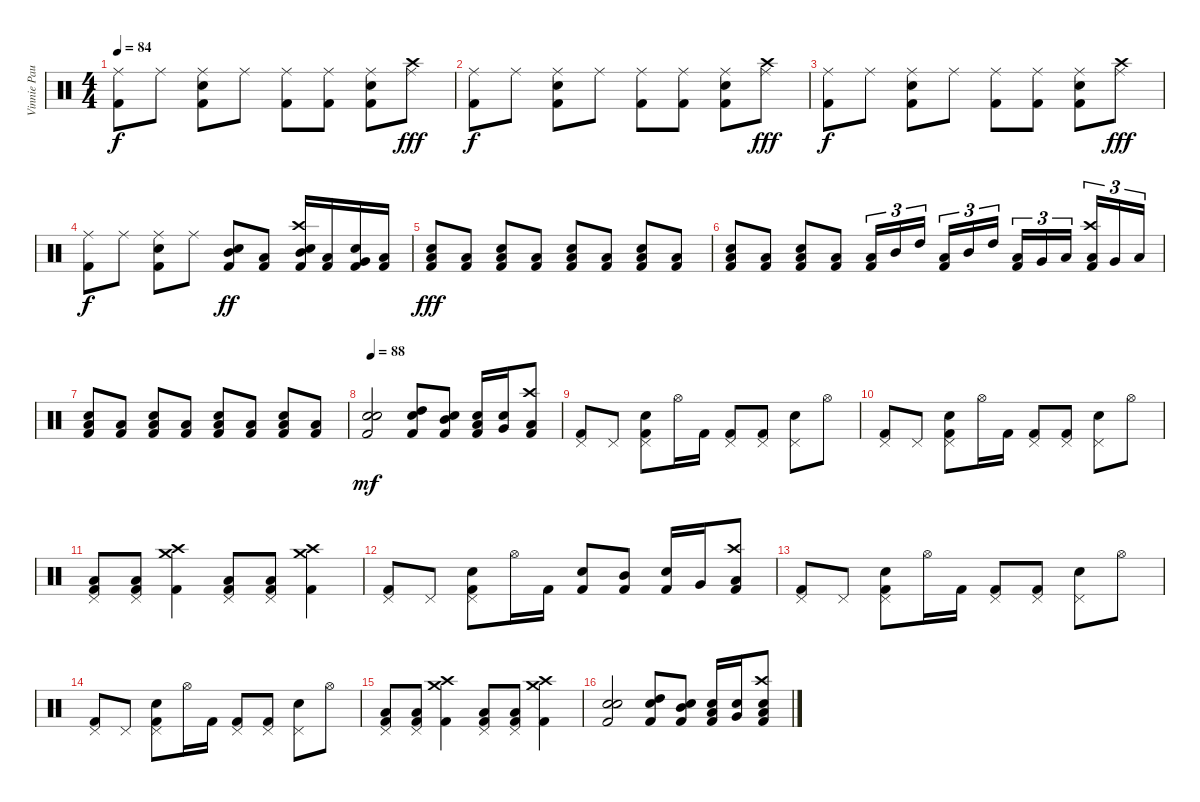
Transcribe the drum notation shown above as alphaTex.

\track ("Vinnie Paul" "Vinnie Pau") {instrument percussion}
\staff {score}
\articulation defaults
\ts (4 4)
\tempo 84
\clef neutral
\ks c
("Ride (middle)" "Kick (hit) 2").8{dy f} "Ride (middle)".8 ("Ride (middle)" "Snare (hit) 2" "Kick (hit) 2").8 "Ride (middle)".8 ("Ride (middle)" "Kick (hit) 2").8 ("Ride (middle)" "Kick (hit) 2").8 ("Ride (middle)" "Snare (hit) 2" "Kick (hit) 2").8 ("Crash high (hit)" "Ride (middle)").8{dy fff} |
("Ride (middle)" "Kick (hit) 2").8{dy f} "Ride (middle)".8 ("Ride (middle)" "Snare (hit) 2" "Kick (hit) 2").8 "Ride (middle)".8 ("Ride (middle)" "Kick (hit) 2").8 ("Ride (middle)" "Kick (hit) 2").8 ("Ride (middle)" "Snare (hit) 2" "Kick (hit) 2").8 ("Crash high (hit)" "Ride (middle)").8{dy fff} |
("Ride (middle)" "Kick (hit) 2").8{dy f} "Ride (middle)".8 ("Ride (middle)" "Snare (hit) 2" "Kick (hit) 2").8 "Ride (middle)".8 ("Ride (middle)" "Kick (hit) 2").8 ("Ride (middle)" "Kick (hit) 2").8 ("Ride (middle)" "Snare (hit) 2" "Kick (hit) 2").8 ("Crash high (hit)" "Ride (middle)").8{dy fff} |
("Ride (middle)" "Kick (hit) 2").8{dy f} "Ride (middle)".8 ("Ride (middle)" "Snare (hit) 2" "Kick (hit) 2").8 "Ride (middle)".8 ("Mid Tom (hit)" "Snare (hit) 2" "Kick (hit) 2").8{dy ff} ("Low Tom (hit)" "Kick (hit) 2").8 ("Crash high (hit)" "Mid Tom (hit)" "Snare (hit) 2" "Kick (hit) 2").16 ("Low Tom (hit)" "Kick (hit) 2").16 ("Very Low Tom (hit)" "Snare (hit) 2" "Kick (hit) 2").16 ("Low Floor Tom (hit)" "Kick (hit) 2").16 |
("Low Floor Tom (hit)" "Snare (hit) 2" "Kick (hit) 2").8{dy fff} ("Low Floor Tom (hit)" "Kick (hit) 2").8 ("Low Floor Tom (hit)" "Snare (hit) 2" "Kick (hit) 2").8 ("Low Floor Tom (hit)" "Kick (hit) 2").8 ("Low Floor Tom (hit)" "Snare (hit) 2" "Kick (hit) 2").8 ("Low Floor Tom (hit)" "Kick (hit) 2").8 ("Low Floor Tom (hit)" "Snare (hit) 2" "Kick (hit) 2").8 ("Low Floor Tom (hit)" "Kick (hit) 2").8 |
("Low Floor Tom (hit)" "Snare (hit) 2" "Kick (hit) 2").8 ("Low Floor Tom (hit)" "Kick (hit) 2").8 ("Low Floor Tom (hit)" "Snare (hit) 2" "Kick (hit) 2").8 ("Low Floor Tom (hit)" "Kick (hit) 2").8 ("Low Tom (hit)" "Kick (hit) 2").16{tu (3 2)} "Mid Tom (hit)".16{tu (3 2)} "High Tom (hit)".16{tu (3 2) beam splitsecondary} ("Low Tom (hit)" "Kick (hit) 2").16{tu (3 2)} "Mid Tom (hit)".16{tu (3 2)} "High Tom (hit)".16{tu (3 2)} ("Low Tom (hit)" "Kick (hit) 2").16{tu (3 2)} "Very Low Tom (hit)".16{tu (3 2)} "Low Floor Tom (hit)".16{tu (3 2) beam splitsecondary} ("Crash high (hit)" "Low Tom (hit)" "Kick (hit) 2").16{tu (3 2)} "Very Low Tom (hit)".16{tu (3 2)} "Low Floor Tom (hit)".16{tu (3 2)} |
("Low Floor Tom (hit)" "Snare (hit) 2" "Kick (hit) 2").8 ("Low Floor Tom (hit)" "Kick (hit) 2").8 ("Low Floor Tom (hit)" "Snare (hit) 2" "Kick (hit) 2").8 ("Low Floor Tom (hit)" "Kick (hit) 2").8 ("Low Floor Tom (hit)" "Snare (hit) 2" "Kick (hit) 2").8 ("Low Floor Tom (hit)" "Kick (hit) 2").8 ("Low Floor Tom (hit)" "Snare (hit) 2" "Kick (hit) 2").8 ("Low Floor Tom (hit)" "Kick (hit) 2").8 |
\tempo 88
("Snare (hit) 2" "Snare (hit) 2" "Kick (hit) 2").2{dy mf} ("High Tom (hit)" "Snare (hit) 2" "Kick (hit) 2").8 ("Mid Tom (hit)" "Snare (hit) 2" "Kick (hit) 2").8 ("Low Tom (hit)" "Snare (hit) 2" "Kick (hit) 2").16 ("Very Low Tom (hit)" "Snare (hit) 2").16 ("Crash high (hit)" "Low Floor Tom (hit)" "Kick (hit) 2").8 |
("Pedal Hi-Hat (hit)" "Kick (hit) 2").8 "Pedal Hi-Hat (hit)".8 ("Pedal Hi-Hat (hit)" "Snare (hit) 2" "Kick (hit) 2").8 "Hi-Hat (open)".16 "Kick (hit) 2".16 ("Pedal Hi-Hat (hit)" "Kick (hit) 2").8 ("Pedal Hi-Hat (hit)" "Kick (hit) 2").8 ("Pedal Hi-Hat (hit)" "Snare (hit) 2").8 "Hi-Hat (open)".8 |
("Pedal Hi-Hat (hit)" "Kick (hit) 2").8 "Pedal Hi-Hat (hit)".8 ("Pedal Hi-Hat (hit)" "Snare (hit) 2" "Kick (hit) 2").8 "Hi-Hat (open)".16 "Kick (hit) 2".16 ("Pedal Hi-Hat (hit)" "Kick (hit) 2").8 ("Pedal Hi-Hat (hit)" "Kick (hit) 2").8 ("Pedal Hi-Hat (hit)" "Snare (hit) 2").8 "Hi-Hat (open)".8 |
("Pedal Hi-Hat (hit)" "Low Floor Tom (hit)" "Kick (hit) 2").8 ("Pedal Hi-Hat (hit)" "Low Floor Tom (hit)" "Kick (hit) 2").8 ("Crash high (hit)" "Crash medium (hit)" "Kick (hit) 2").4 ("Pedal Hi-Hat (hit)" "Low Floor Tom (hit)" "Kick (hit) 2").8 ("Pedal Hi-Hat (hit)" "Low Floor Tom (hit)" "Kick (hit) 2").8 ("Crash high (hit)" "Crash medium (hit)" "Kick (hit) 2").4 |
("Pedal Hi-Hat (hit)" "Kick (hit) 2").8 "Pedal Hi-Hat (hit)".8 ("Pedal Hi-Hat (hit)" "Snare (hit) 2" "Kick (hit) 2").8 "Hi-Hat (open)".16 "Kick (hit) 2".16 ("Snare (hit) 2" "Kick (hit) 2").8 ("Mid Tom (hit)" "Kick (hit) 2").8 ("Snare (hit) 2" "Kick (hit) 2").16 "Very Low Tom (hit)".16 ("Crash high (hit)" "Low Floor Tom (hit)" "Kick (hit) 2").8 |
("Pedal Hi-Hat (hit)" "Kick (hit) 2").8 "Pedal Hi-Hat (hit)".8 ("Pedal Hi-Hat (hit)" "Snare (hit) 2" "Kick (hit) 2").8 "Hi-Hat (open)".16 "Kick (hit) 2".16 ("Pedal Hi-Hat (hit)" "Kick (hit) 2").8 ("Pedal Hi-Hat (hit)" "Kick (hit) 2").8 ("Pedal Hi-Hat (hit)" "Snare (hit) 2").8 "Hi-Hat (open)".8 |
("Pedal Hi-Hat (hit)" "Kick (hit) 2").8 "Pedal Hi-Hat (hit)".8 ("Pedal Hi-Hat (hit)" "Snare (hit) 2" "Kick (hit) 2").8 "Hi-Hat (open)".16 "Kick (hit) 2".16 ("Pedal Hi-Hat (hit)" "Kick (hit) 2").8 ("Pedal Hi-Hat (hit)" "Kick (hit) 2").8 ("Pedal Hi-Hat (hit)" "Snare (hit) 2").8 "Hi-Hat (open)".8 |
("Pedal Hi-Hat (hit)" "Low Floor Tom (hit)" "Kick (hit) 2").8 ("Pedal Hi-Hat (hit)" "Low Floor Tom (hit)" "Kick (hit) 2").8 ("Crash high (hit)" "Crash medium (hit)" "Kick (hit) 2").4 ("Pedal Hi-Hat (hit)" "Low Floor Tom (hit)" "Kick (hit) 2").8 ("Pedal Hi-Hat (hit)" "Low Floor Tom (hit)" "Kick (hit) 2").8 ("Crash high (hit)" "Crash medium (hit)" "Kick (hit) 2").4 |
("Snare (hit) 2" "Snare (hit) 2" "Kick (hit) 2").2 ("High Tom (hit)" "Snare (hit) 2" "Kick (hit) 2").8 ("Mid Tom (hit)" "Snare (hit) 2" "Kick (hit) 2").8 ("Low Tom (hit)" "Snare (hit) 2" "Kick (hit) 2").16 ("Very Low Tom (hit)" "Snare (hit) 2").16 ("Crash high (hit)" "Low Floor Tom (hit)" "Snare (hit) 2" "Kick (hit) 2").8
